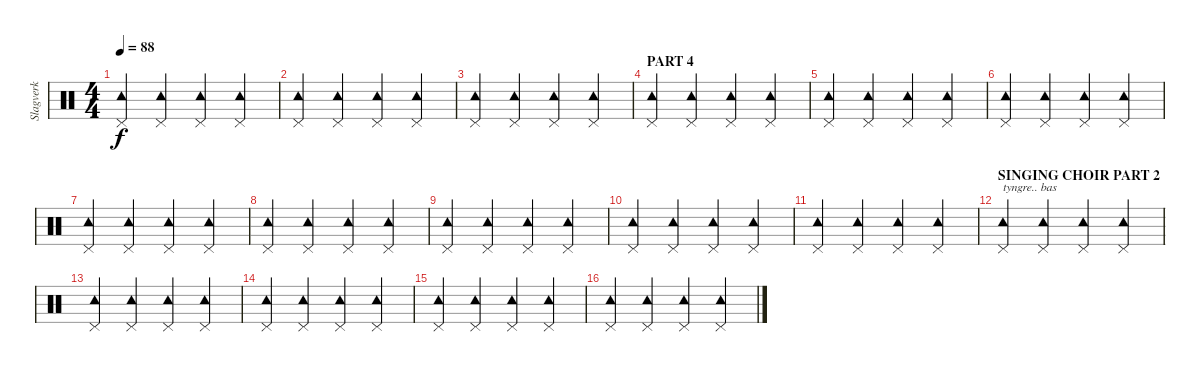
\track ("Slagverk" "Slagverk") {instrument percussion}
\staff {score}
\articulation defaults
\ts (4 4)
\tempo 88
\clef neutral
\ks c
("Pedal Hi-Hat (hit)" "Tambourine (hit)").4{dy f} ("Pedal Hi-Hat (hit)" "Tambourine (hit)").4 ("Pedal Hi-Hat (hit)" "Tambourine (hit)").4 ("Pedal Hi-Hat (hit)" "Tambourine (hit)").4 |
("Pedal Hi-Hat (hit)" "Tambourine (hit)").4 ("Pedal Hi-Hat (hit)" "Tambourine (hit)").4 ("Pedal Hi-Hat (hit)" "Tambourine (hit)").4 ("Pedal Hi-Hat (hit)" "Tambourine (hit)").4 |
("Pedal Hi-Hat (hit)" "Tambourine (hit)").4 ("Pedal Hi-Hat (hit)" "Tambourine (hit)").4 ("Pedal Hi-Hat (hit)" "Tambourine (hit)").4 ("Pedal Hi-Hat (hit)" "Tambourine (hit)").4 |
\section ("" "PART 4")
("Pedal Hi-Hat (hit)" "Tambourine (hit)").4 ("Pedal Hi-Hat (hit)" "Tambourine (hit)").4 ("Pedal Hi-Hat (hit)" "Tambourine (hit)").4 ("Pedal Hi-Hat (hit)" "Tambourine (hit)").4 |
("Pedal Hi-Hat (hit)" "Tambourine (hit)").4 ("Pedal Hi-Hat (hit)" "Tambourine (hit)").4 ("Pedal Hi-Hat (hit)" "Tambourine (hit)").4 ("Pedal Hi-Hat (hit)" "Tambourine (hit)").4 |
("Pedal Hi-Hat (hit)" "Tambourine (hit)").4 ("Pedal Hi-Hat (hit)" "Tambourine (hit)").4 ("Pedal Hi-Hat (hit)" "Tambourine (hit)").4 ("Pedal Hi-Hat (hit)" "Tambourine (hit)").4 |
("Pedal Hi-Hat (hit)" "Tambourine (hit)").4 ("Pedal Hi-Hat (hit)" "Tambourine (hit)").4 ("Pedal Hi-Hat (hit)" "Tambourine (hit)").4 ("Pedal Hi-Hat (hit)" "Tambourine (hit)").4 |
("Pedal Hi-Hat (hit)" "Tambourine (hit)").4 ("Pedal Hi-Hat (hit)" "Tambourine (hit)").4 ("Pedal Hi-Hat (hit)" "Tambourine (hit)").4 ("Pedal Hi-Hat (hit)" "Tambourine (hit)").4 |
("Pedal Hi-Hat (hit)" "Tambourine (hit)").4 ("Pedal Hi-Hat (hit)" "Tambourine (hit)").4 ("Pedal Hi-Hat (hit)" "Tambourine (hit)").4 ("Pedal Hi-Hat (hit)" "Tambourine (hit)").4 |
("Pedal Hi-Hat (hit)" "Tambourine (hit)").4 ("Pedal Hi-Hat (hit)" "Tambourine (hit)").4 ("Pedal Hi-Hat (hit)" "Tambourine (hit)").4 ("Pedal Hi-Hat (hit)" "Tambourine (hit)").4 |
("Pedal Hi-Hat (hit)" "Tambourine (hit)").4 ("Pedal Hi-Hat (hit)" "Tambourine (hit)").4 ("Pedal Hi-Hat (hit)" "Tambourine (hit)").4 ("Pedal Hi-Hat (hit)" "Tambourine (hit)").4 |
\section ("" "SINGING CHOIR PART 2")
("Pedal Hi-Hat (hit)" "Tambourine (hit)").4{txt "tyngre.. bas"} ("Pedal Hi-Hat (hit)" "Tambourine (hit)").4 ("Pedal Hi-Hat (hit)" "Tambourine (hit)").4 ("Pedal Hi-Hat (hit)" "Tambourine (hit)").4 |
("Pedal Hi-Hat (hit)" "Tambourine (hit)").4 ("Pedal Hi-Hat (hit)" "Tambourine (hit)").4 ("Pedal Hi-Hat (hit)" "Tambourine (hit)").4 ("Pedal Hi-Hat (hit)" "Tambourine (hit)").4 |
("Pedal Hi-Hat (hit)" "Tambourine (hit)").4 ("Pedal Hi-Hat (hit)" "Tambourine (hit)").4 ("Pedal Hi-Hat (hit)" "Tambourine (hit)").4 ("Pedal Hi-Hat (hit)" "Tambourine (hit)").4 |
("Pedal Hi-Hat (hit)" "Tambourine (hit)").4 ("Pedal Hi-Hat (hit)" "Tambourine (hit)").4 ("Pedal Hi-Hat (hit)" "Tambourine (hit)").4 ("Pedal Hi-Hat (hit)" "Tambourine (hit)").4 |
("Pedal Hi-Hat (hit)" "Tambourine (hit)").4 ("Pedal Hi-Hat (hit)" "Tambourine (hit)").4 ("Pedal Hi-Hat (hit)" "Tambourine (hit)").4 ("Pedal Hi-Hat (hit)" "Tambourine (hit)").4
